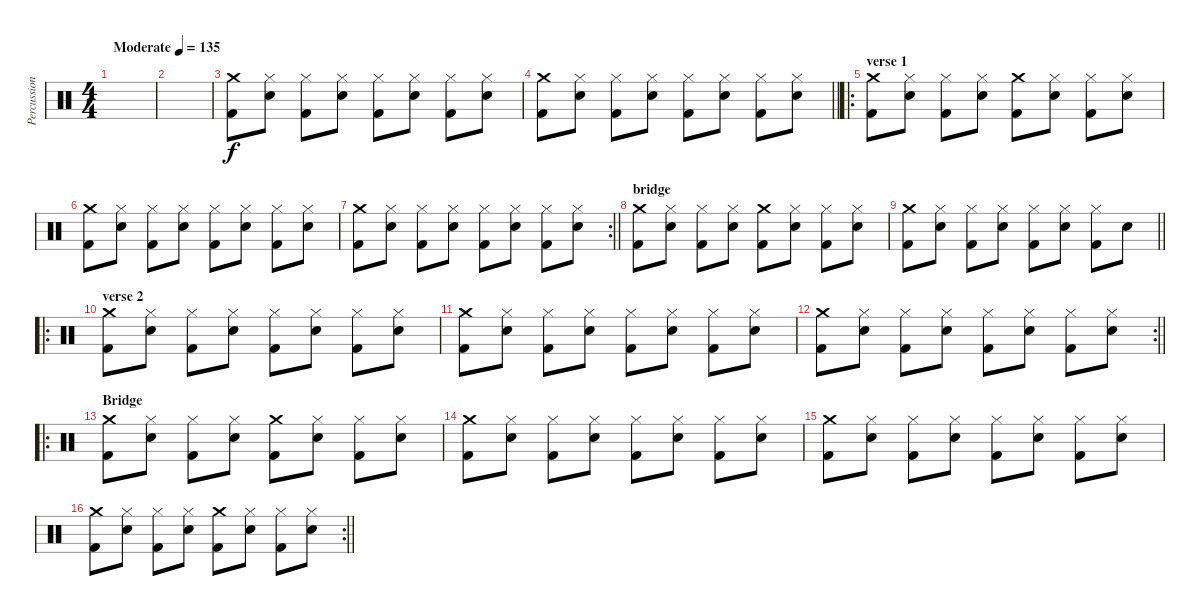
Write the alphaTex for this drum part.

\track ("Percussion" "Percussion") {instrument percussion}
\staff {score}
\articulation defaults
\ts (4 4)
\tempo (135 "Moderate")
\clef neutral
\ks c
|
|
("Crash medium (hit)" "Kick (hit) 2").8 ("Snare (hit) 2" "Hi-Hat (closed)").8 ("Hi-Hat (closed)" "Kick (hit) 2").8 ("Snare (hit) 2" "Hi-Hat (closed)").8 ("Hi-Hat (closed)" "Kick (hit) 2").8 ("Snare (hit) 2" "Hi-Hat (closed)").8 ("Hi-Hat (closed)" "Kick (hit) 2").8 ("Snare (hit) 2" "Hi-Hat (closed)").8 |
\barLineRight lightlight
("Crash medium (hit)" "Kick (hit) 2").8 ("Snare (hit) 2" "Hi-Hat (closed)").8 ("Hi-Hat (closed)" "Kick (hit) 2").8 ("Snare (hit) 2" "Hi-Hat (closed)").8 ("Hi-Hat (closed)" "Kick (hit) 2").8 ("Snare (hit) 2" "Hi-Hat (closed)").8 ("Hi-Hat (closed)" "Kick (hit) 2").8 ("Snare (hit) 2" "Hi-Hat (closed)").8 |
\ro
\section ("" "verse 1")
("Crash medium (hit)" "Kick (hit) 2").8 ("Snare (hit) 2" "Hi-Hat (closed)").8 ("Hi-Hat (closed)" "Kick (hit) 2").8 ("Snare (hit) 2" "Hi-Hat (closed)").8 ("Crash medium (hit)" "Kick (hit) 2").8 ("Snare (hit) 2" "Hi-Hat (closed)").8 ("Hi-Hat (closed)" "Kick (hit) 2").8 ("Snare (hit) 2" "Hi-Hat (closed)").8 |
("Crash medium (hit)" "Kick (hit) 2").8 ("Snare (hit) 2" "Hi-Hat (closed)").8 ("Hi-Hat (closed)" "Kick (hit) 2").8 ("Snare (hit) 2" "Hi-Hat (closed)").8 ("Hi-Hat (closed)" "Kick (hit) 2").8 ("Snare (hit) 2" "Hi-Hat (closed)").8 ("Hi-Hat (closed)" "Kick (hit) 2").8 ("Snare (hit) 2" "Hi-Hat (closed)").8 |
\rc 2
\barLineRight lightlight
("Crash medium (hit)" "Kick (hit) 2").8 ("Snare (hit) 2" "Hi-Hat (closed)").8 ("Hi-Hat (closed)" "Kick (hit) 2").8 ("Snare (hit) 2" "Hi-Hat (closed)").8 ("Hi-Hat (closed)" "Kick (hit) 2").8 ("Snare (hit) 2" "Hi-Hat (closed)").8 ("Hi-Hat (closed)" "Kick (hit) 2").8 ("Snare (hit) 2" "Hi-Hat (closed)").8 |
\section ("" "bridge")
("Crash medium (hit)" "Kick (hit) 2").8 ("Snare (hit) 2" "Hi-Hat (closed)").8 ("Hi-Hat (closed)" "Kick (hit) 2").8 ("Snare (hit) 2" "Hi-Hat (closed)").8 ("Crash medium (hit)" "Kick (hit) 2").8 ("Snare (hit) 2" "Hi-Hat (closed)").8 ("Hi-Hat (closed)" "Kick (hit) 2").8 ("Snare (hit) 2" "Hi-Hat (closed)").8 |
\barLineRight lightlight
("Crash medium (hit)" "Kick (hit) 2").8 ("Snare (hit) 2" "Hi-Hat (closed)").8 ("Hi-Hat (closed)" "Kick (hit) 2").8 ("Snare (hit) 2" "Hi-Hat (closed)").8 ("Hi-Hat (closed)" "Kick (hit) 2").8 ("Snare (hit) 2" "Hi-Hat (closed)").8 ("Hi-Hat (closed)" "Kick (hit) 2").8 "Snare (hit) 2".8 |
\ro
\section ("" "verse 2")
("Crash medium (hit)" "Kick (hit) 2").8 ("Snare (hit) 2" "Hi-Hat (closed)").8 ("Hi-Hat (closed)" "Kick (hit) 2").8 ("Snare (hit) 2" "Hi-Hat (closed)").8 ("Hi-Hat (closed)" "Kick (hit) 2").8 ("Snare (hit) 2" "Hi-Hat (closed)").8 ("Hi-Hat (closed)" "Kick (hit) 2").8 ("Snare (hit) 2" "Hi-Hat (closed)").8 |
("Crash medium (hit)" "Kick (hit) 2").8 ("Snare (hit) 2" "Hi-Hat (closed)").8 ("Hi-Hat (closed)" "Kick (hit) 2").8 ("Snare (hit) 2" "Hi-Hat (closed)").8 ("Hi-Hat (closed)" "Kick (hit) 2").8 ("Snare (hit) 2" "Hi-Hat (closed)").8 ("Hi-Hat (closed)" "Kick (hit) 2").8 ("Snare (hit) 2" "Hi-Hat (closed)").8 |
\rc 2
\barLineRight lightlight
("Crash medium (hit)" "Kick (hit) 2").8 ("Snare (hit) 2" "Hi-Hat (closed)").8 ("Hi-Hat (closed)" "Kick (hit) 2").8 ("Snare (hit) 2" "Hi-Hat (closed)").8 ("Hi-Hat (closed)" "Kick (hit) 2").8 ("Snare (hit) 2" "Hi-Hat (closed)").8 ("Hi-Hat (closed)" "Kick (hit) 2").8 ("Snare (hit) 2" "Hi-Hat (closed)").8 |
\ro
\section ("" "Bridge")
("Crash medium (hit)" "Kick (hit) 2").8 ("Snare (hit) 2" "Hi-Hat (closed)").8 ("Hi-Hat (closed)" "Kick (hit) 2").8 ("Snare (hit) 2" "Hi-Hat (closed)").8 ("Crash medium (hit)" "Kick (hit) 2").8 ("Snare (hit) 2" "Hi-Hat (closed)").8 ("Hi-Hat (closed)" "Kick (hit) 2").8 ("Snare (hit) 2" "Hi-Hat (closed)").8 |
("Crash medium (hit)" "Kick (hit) 2").8 ("Snare (hit) 2" "Hi-Hat (closed)").8 ("Hi-Hat (closed)" "Kick (hit) 2").8 ("Snare (hit) 2" "Hi-Hat (closed)").8 ("Hi-Hat (closed)" "Kick (hit) 2").8 ("Snare (hit) 2" "Hi-Hat (closed)").8 ("Hi-Hat (closed)" "Kick (hit) 2").8 ("Snare (hit) 2" "Hi-Hat (closed)").8 |
("Crash medium (hit)" "Kick (hit) 2").8 ("Snare (hit) 2" "Hi-Hat (closed)").8 ("Hi-Hat (closed)" "Kick (hit) 2").8 ("Snare (hit) 2" "Hi-Hat (closed)").8 ("Hi-Hat (closed)" "Kick (hit) 2").8 ("Snare (hit) 2" "Hi-Hat (closed)").8 ("Hi-Hat (closed)" "Kick (hit) 2").8 ("Snare (hit) 2" "Hi-Hat (closed)").8 |
\rc 2
\barLineRight lightlight
("Crash medium (hit)" "Kick (hit) 2").8 ("Snare (hit) 2" "Hi-Hat (closed)").8 ("Hi-Hat (closed)" "Kick (hit) 2").8 ("Snare (hit) 2" "Hi-Hat (closed)").8 ("Crash medium (hit)" "Kick (hit) 2").8 ("Snare (hit) 2" "Hi-Hat (closed)").8 ("Hi-Hat (closed)" "Kick (hit) 2").8 ("Snare (hit) 2" "Hi-Hat (closed)").8
